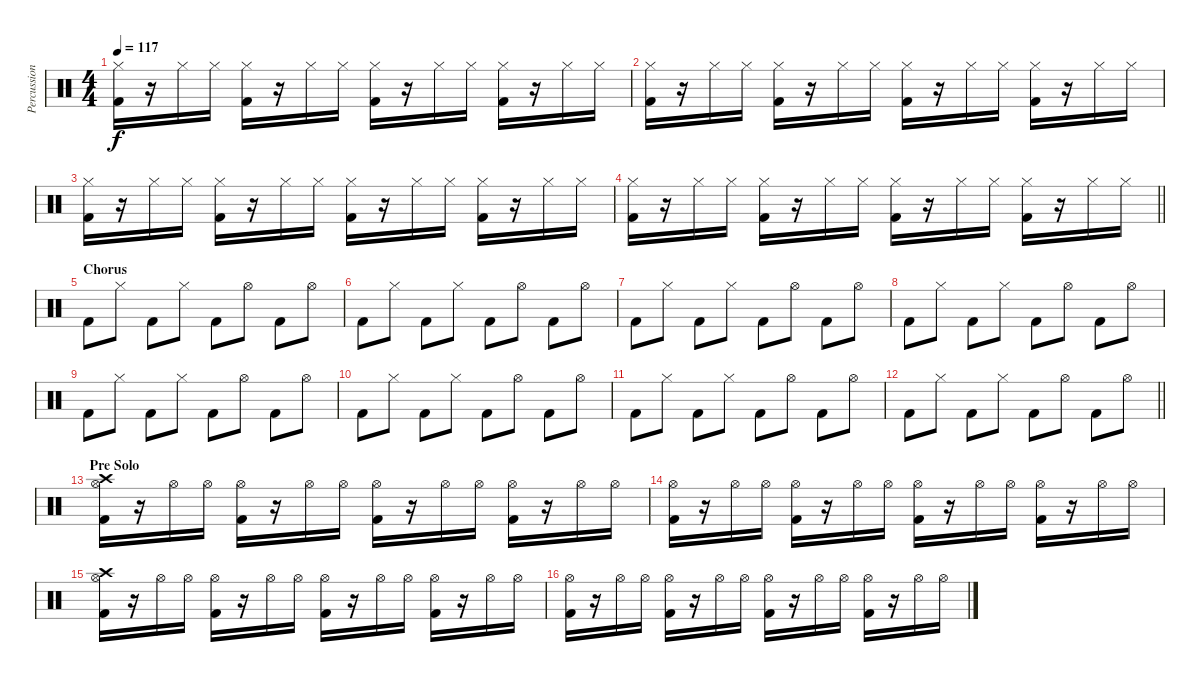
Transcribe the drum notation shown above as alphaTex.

\track ("Percussion" "Percussion") {instrument percussion}
\staff {score}
\articulation defaults
\ts (4 4)
\tempo 117
\clef neutral
\ks c
("Hi-Hat (closed)" "Kick (hit) 2").16{dy f} r.16 "Hi-Hat (closed)".16 "Hi-Hat (closed)".16 ("Hi-Hat (closed)" "Kick (hit) 2").16 r.16 "Hi-Hat (closed)".16 "Hi-Hat (closed)".16 ("Hi-Hat (closed)" "Kick (hit) 2").16 r.16 "Hi-Hat (closed)".16 "Hi-Hat (closed)".16 ("Hi-Hat (closed)" "Kick (hit) 2").16 r.16 "Hi-Hat (closed)".16 "Hi-Hat (closed)".16 |
("Hi-Hat (closed)" "Kick (hit) 2").16 r.16 "Hi-Hat (closed)".16 "Hi-Hat (closed)".16 ("Hi-Hat (closed)" "Kick (hit) 2").16 r.16 "Hi-Hat (closed)".16 "Hi-Hat (closed)".16 ("Hi-Hat (closed)" "Kick (hit) 2").16 r.16 "Hi-Hat (closed)".16 "Hi-Hat (closed)".16 ("Hi-Hat (closed)" "Kick (hit) 2").16 r.16 "Hi-Hat (closed)".16 "Hi-Hat (closed)".16 |
("Hi-Hat (closed)" "Kick (hit) 2").16 r.16 "Hi-Hat (closed)".16 "Hi-Hat (closed)".16 ("Hi-Hat (closed)" "Kick (hit) 2").16 r.16 "Hi-Hat (closed)".16 "Hi-Hat (closed)".16 ("Hi-Hat (closed)" "Kick (hit) 2").16 r.16 "Hi-Hat (closed)".16 "Hi-Hat (closed)".16 ("Hi-Hat (closed)" "Kick (hit) 2").16 r.16 "Hi-Hat (closed)".16 "Hi-Hat (closed)".16 |
\barLineRight lightlight
("Hi-Hat (closed)" "Kick (hit) 2").16 r.16 "Hi-Hat (closed)".16 "Hi-Hat (closed)".16 ("Hi-Hat (closed)" "Kick (hit) 2").16 r.16 "Hi-Hat (closed)".16 "Hi-Hat (closed)".16 ("Hi-Hat (closed)" "Kick (hit) 2").16 r.16 "Hi-Hat (closed)".16 "Hi-Hat (closed)".16 ("Hi-Hat (closed)" "Kick (hit) 2").16 r.16 "Hi-Hat (closed)".16 "Hi-Hat (closed)".16 |
\section ("" "Chorus")
"Kick (hit) 2".8 "Hi-Hat (closed)".8 "Kick (hit) 2".8 "Hi-Hat (closed)".8 "Kick (hit) 2".8 "Hi-Hat (open)".8 "Kick (hit) 2".8 "Hi-Hat (open)".8 |
"Kick (hit) 2".8 "Hi-Hat (closed)".8 "Kick (hit) 2".8 "Hi-Hat (closed)".8 "Kick (hit) 2".8 "Hi-Hat (open)".8 "Kick (hit) 2".8 "Hi-Hat (open)".8 |
"Kick (hit) 2".8 "Hi-Hat (closed)".8 "Kick (hit) 2".8 "Hi-Hat (closed)".8 "Kick (hit) 2".8 "Hi-Hat (open)".8 "Kick (hit) 2".8 "Hi-Hat (open)".8 |
"Kick (hit) 2".8 "Hi-Hat (closed)".8 "Kick (hit) 2".8 "Hi-Hat (closed)".8 "Kick (hit) 2".8 "Hi-Hat (open)".8 "Kick (hit) 2".8 "Hi-Hat (open)".8 |
"Kick (hit) 2".8 "Hi-Hat (closed)".8 "Kick (hit) 2".8 "Hi-Hat (closed)".8 "Kick (hit) 2".8 "Hi-Hat (open)".8 "Kick (hit) 2".8 "Hi-Hat (open)".8 |
"Kick (hit) 2".8 "Hi-Hat (closed)".8 "Kick (hit) 2".8 "Hi-Hat (closed)".8 "Kick (hit) 2".8 "Hi-Hat (open)".8 "Kick (hit) 2".8 "Hi-Hat (open)".8 |
"Kick (hit) 2".8 "Hi-Hat (closed)".8 "Kick (hit) 2".8 "Hi-Hat (closed)".8 "Kick (hit) 2".8 "Hi-Hat (open)".8 "Kick (hit) 2".8 "Hi-Hat (open)".8 |
\barLineRight lightlight "Kick (hit) 2".8 "Hi-Hat (closed)".8 "Kick (hit) 2".8 "Hi-Hat (closed)".8 "Kick (hit) 2".8 "Hi-Hat (open)".8 "Kick (hit) 2".8 "Hi-Hat (open)".8
|
\section ("" "Pre Solo")
("Crash high (hit)" "Hi-Hat (open)" "Kick (hit) 2").16 r.16 "Hi-Hat (open)".16 "Hi-Hat (open)".16 ("Hi-Hat (open)" "Kick (hit) 2").16 r.16 "Hi-Hat (open)".16 "Hi-Hat (open)".16 ("Hi-Hat (open)" "Kick (hit) 2").16 r.16 "Hi-Hat (open)".16 "Hi-Hat (open)".16 ("Hi-Hat (open)" "Kick (hit) 2").16 r.16 "Hi-Hat (open)".16 "Hi-Hat (open)".16 |
("Hi-Hat (open)" "Kick (hit) 2").16 r.16 "Hi-Hat (open)".16 "Hi-Hat (open)".16 ("Hi-Hat (open)" "Kick (hit) 2").16 r.16 "Hi-Hat (open)".16 "Hi-Hat (open)".16 ("Hi-Hat (open)" "Kick (hit) 2").16 r.16 "Hi-Hat (open)".16 "Hi-Hat (open)".16 ("Hi-Hat (open)" "Kick (hit) 2").16 r.16 "Hi-Hat (open)".16 "Hi-Hat (open)".16 |
("Crash high (hit)" "Hi-Hat (open)" "Kick (hit) 2").16 r.16 "Hi-Hat (open)".16 "Hi-Hat (open)".16 ("Hi-Hat (open)" "Kick (hit) 2").16 r.16 "Hi-Hat (open)".16 "Hi-Hat (open)".16 ("Hi-Hat (open)" "Kick (hit) 2").16 r.16 "Hi-Hat (open)".16 "Hi-Hat (open)".16 ("Hi-Hat (open)" "Kick (hit) 2").16 r.16 "Hi-Hat (open)".16 "Hi-Hat (open)".16 |
("Hi-Hat (open)" "Kick (hit) 2").16 r.16 "Hi-Hat (open)".16 "Hi-Hat (open)".16 ("Hi-Hat (open)" "Kick (hit) 2").16 r.16 "Hi-Hat (open)".16 "Hi-Hat (open)".16 ("Hi-Hat (open)" "Kick (hit) 2").16 r.16 "Hi-Hat (open)".16 "Hi-Hat (open)".16 ("Hi-Hat (open)" "Kick (hit) 2").16 r.16 "Hi-Hat (open)".16 "Hi-Hat (open)".16
